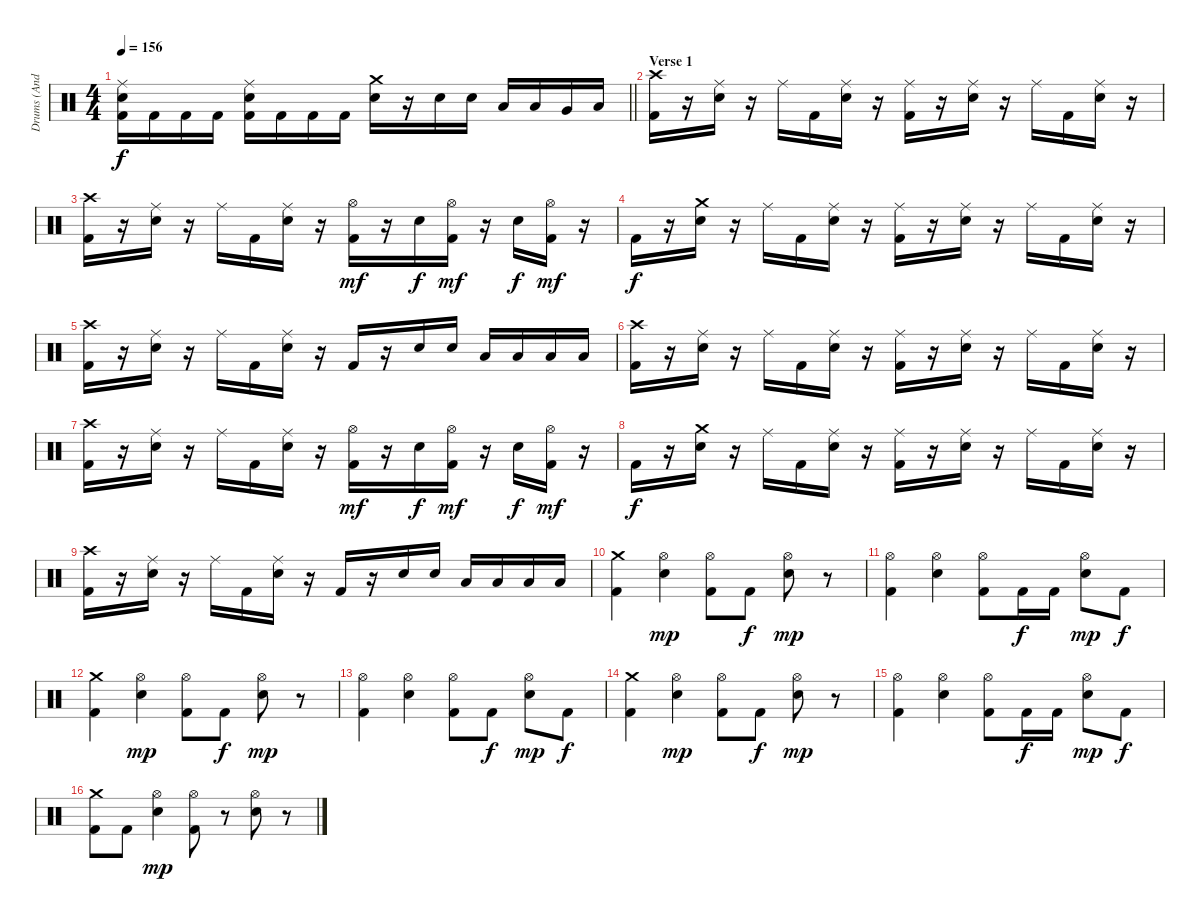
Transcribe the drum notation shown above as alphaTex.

\track ("Drums (Andy C)" "Drums (And") {instrument percussion}
\staff
\articulation defaults
\ts (4 4)
\tempo 156
\clef neutral
\barLineRight lightlight
\ks c
("Ride (middle)" "Kick (hit) 2" "Electric Snare (hit)").16{dy f} "Kick (hit) 2".16 "Kick (hit) 2".16 "Kick (hit) 2".16 ("Ride (middle)" "Kick (hit) 2" "Electric Snare (hit)").16 "Kick (hit) 2".16 "Kick (hit) 2".16 "Kick (hit) 2".16 ("Crash medium (hit)" "Electric Snare (hit)").16 r.16 "Electric Snare (hit)".16 "Electric Snare (hit)".16 "Low Tom (hit)".16 "Low Tom (hit)".16 "Very Low Tom (hit)".16 "Low Floor Tom (hit)".16 |
\section ("" "Verse 1")
("Crash high (hit)" "Kick (hit) 2").16 r.16 ("Ride (middle)" "Electric Snare (hit)").16 r.16 "Ride (middle)".16 "Kick (hit) 2".16 ("Ride (middle)" "Electric Snare (hit)").16 r.16 ("Ride (middle)" "Kick (hit) 2").16 r.16 ("Ride (middle)" "Electric Snare (hit)").16 r.16 "Ride (middle)".16 "Kick (hit) 2".16 ("Ride (middle)" "Electric Snare (hit)").16 r.16 |
("Crash high (hit)" "Kick (hit) 2").16 r.16 ("Ride (middle)" "Electric Snare (hit)").16 r.16 "Ride (middle)".16 "Kick (hit) 2".16 ("Ride (middle)" "Electric Snare (hit)").16 r.16 ("Hi-Hat (open)" "Kick (hit) 2").16{dy mf} r.16 "Electric Snare (hit)".16{dy f} ("Hi-Hat (open)" "Kick (hit) 2").16{dy mf} r.16 "Electric Snare (hit)".16{dy f} ("Hi-Hat (open)" "Kick (hit) 2").16{dy mf} r.16 |
"Kick (hit) 2".16{dy f} r.16 ("Crash medium (hit)" "Electric Snare (hit)").16 r.16 "Ride (middle)".16 "Kick (hit) 2".16 ("Ride (middle)" "Electric Snare (hit)").16 r.16 ("Ride (middle)" "Kick (hit) 2").16 r.16 ("Ride (middle)" "Electric Snare (hit)").16 r.16 "Ride (middle)".16 "Kick (hit) 2".16 ("Ride (middle)" "Electric Snare (hit)").16 r.16 |
("Crash high (hit)" "Kick (hit) 2").16 r.16 ("Ride (middle)" "Electric Snare (hit)").16 r.16 "Ride (middle)".16 "Kick (hit) 2".16 ("Ride (middle)" "Electric Snare (hit)").16 r.16 "Kick (hit) 2".16 r.16 "Electric Snare (hit)".16 "Electric Snare (hit)".16 "Low Tom (hit)".16 "Low Tom (hit)".16 "Low Floor Tom (hit)".16 "Low Floor Tom (hit)".16 |
("Crash high (hit)" "Kick (hit) 2").16 r.16 ("Ride (middle)" "Electric Snare (hit)").16 r.16 "Ride (middle)".16 "Kick (hit) 2".16 ("Ride (middle)" "Electric Snare (hit)").16 r.16 ("Ride (middle)" "Kick (hit) 2").16 r.16 ("Ride (middle)" "Electric Snare (hit)").16 r.16 "Ride (middle)".16 "Kick (hit) 2".16 ("Ride (middle)" "Electric Snare (hit)").16 r.16 |
("Crash high (hit)" "Kick (hit) 2").16 r.16 ("Ride (middle)" "Electric Snare (hit)").16 r.16 "Ride (middle)".16 "Kick (hit) 2".16 ("Ride (middle)" "Electric Snare (hit)").16 r.16 ("Hi-Hat (open)" "Kick (hit) 2").16{dy mf} r.16 "Electric Snare (hit)".16{dy f} ("Hi-Hat (open)" "Kick (hit) 2").16{dy mf} r.16 "Electric Snare (hit)".16{dy f} ("Hi-Hat (open)" "Kick (hit) 2").16{dy mf} r.16 |
"Kick (hit) 2".16{dy f} r.16 ("Crash medium (hit)" "Electric Snare (hit)").16 r.16 "Ride (middle)".16 "Kick (hit) 2".16 ("Ride (middle)" "Electric Snare (hit)").16 r.16 ("Ride (middle)" "Kick (hit) 2").16 r.16 ("Ride (middle)" "Electric Snare (hit)").16 r.16 "Ride (middle)".16 "Kick (hit) 2".16 ("Ride (middle)" "Electric Snare (hit)").16 r.16 |
("Crash high (hit)" "Kick (hit) 2").16 r.16 ("Ride (middle)" "Electric Snare (hit)").16 r.16 "Ride (middle)".16 "Kick (hit) 2".16 ("Ride (middle)" "Electric Snare (hit)").16 r.16 "Kick (hit) 2".16 r.16 "Electric Snare (hit)".16 "Electric Snare (hit)".16 "Low Tom (hit)".16 "Low Tom (hit)".16 "Low Floor Tom (hit)".16 "Low Floor Tom (hit)".16 |
("Crash medium (hit)" "Kick (hit) 2").4 ("Hi-Hat (open)" "Electric Snare (hit)").4{dy mp} ("Hi-Hat (open)" "Kick (hit) 2").8 "Kick (hit) 2".8{dy f} ("Hi-Hat (open)" "Electric Snare (hit)").8{dy mp} r.8 |
("Hi-Hat (open)" "Kick (hit) 2").4 ("Hi-Hat (open)" "Electric Snare (hit)").4 ("Hi-Hat (open)" "Kick (hit) 2").8 "Kick (hit) 2".16{dy f} "Kick (hit) 2".16 ("Hi-Hat (open)" "Electric Snare (hit)").8{dy mp} "Kick (hit) 2".8{dy f} |
("Crash medium (hit)" "Kick (hit) 2").4 ("Hi-Hat (open)" "Electric Snare (hit)").4{dy mp} ("Hi-Hat (open)" "Kick (hit) 2").8 "Kick (hit) 2".8{dy f} ("Hi-Hat (open)" "Electric Snare (hit)").8{dy mp} r.8 |
("Hi-Hat (open)" "Kick (hit) 2").4 ("Hi-Hat (open)" "Electric Snare (hit)").4 ("Hi-Hat (open)" "Kick (hit) 2").8 "Kick (hit) 2".8{dy f} ("Hi-Hat (open)" "Electric Snare (hit)").8{dy mp} "Kick (hit) 2".8{dy f} |
("Crash medium (hit)" "Kick (hit) 2").4 ("Hi-Hat (open)" "Electric Snare (hit)").4{dy mp} ("Hi-Hat (open)" "Kick (hit) 2").8 "Kick (hit) 2".8{dy f} ("Hi-Hat (open)" "Electric Snare (hit)").8{dy mp} r.8 |
("Hi-Hat (open)" "Kick (hit) 2").4 ("Hi-Hat (open)" "Electric Snare (hit)").4 ("Hi-Hat (open)" "Kick (hit) 2").8 "Kick (hit) 2".16{dy f} "Kick (hit) 2".16 ("Hi-Hat (open)" "Electric Snare (hit)").8{dy mp} "Kick (hit) 2".8{dy f} |
("Crash medium (hit)" "Kick (hit) 2").8 "Kick (hit) 2".8 ("Hi-Hat (open)" "Electric Snare (hit)").4{dy mp} ("Hi-Hat (open)" "Kick (hit) 2").8 r.8 ("Hi-Hat (open)" "Electric Snare (hit)").8 r.8
